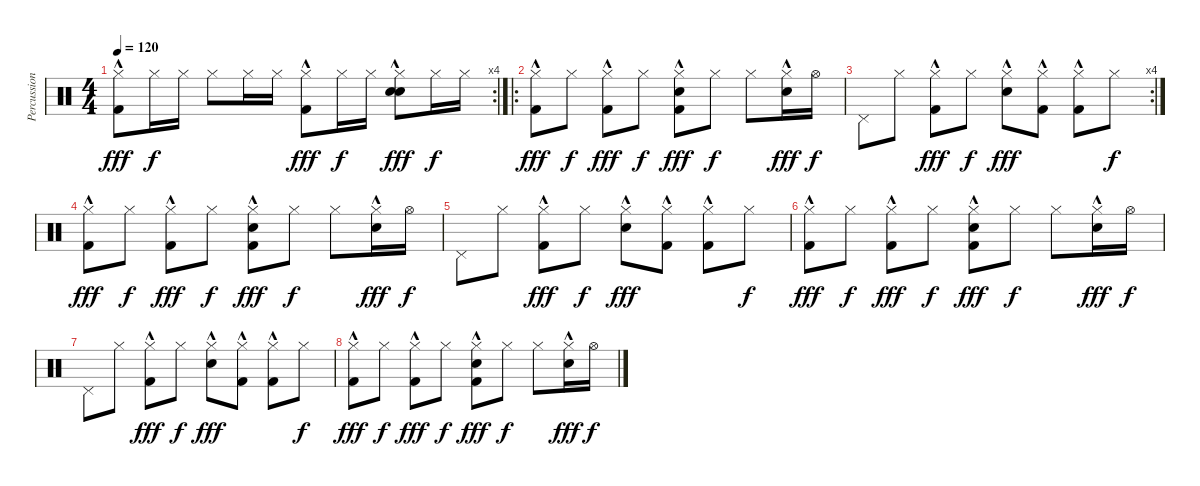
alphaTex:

\track ("Percussion" "Percussion") {instrument percussion}
\staff {score}
\articulation defaults
\rc 4
\ts (4 4)
\tempo 120
\clef neutral
\ks c
("Hi-Hat (closed)" "Kick (hit) 2"{hac}).8{dy fff} "Hi-Hat (closed)".16{dy f} "Hi-Hat (closed)".16 "Hi-Hat (closed)".8 "Hi-Hat (closed)".16 "Hi-Hat (closed)".16 ("Hi-Hat (closed)" "Kick (hit) 2"{hac}).8{dy fff} "Hi-Hat (closed)".16{dy f} "Hi-Hat (closed)".16 ("Hi-Hat (closed)" "Hand Clap (hit)"{hac} "Snare (hit) 2").8{dy fff} "Hi-Hat (closed)".16{dy f} "Hi-Hat (closed)".16 |
\ro
("Hi-Hat (closed)" "Kick (hit) 2"{hac}).8{dy fff} "Hi-Hat (closed)".8{dy f} ("Hi-Hat (closed)" "Kick (hit) 2"{hac}).8{dy fff} "Hi-Hat (closed)".8{dy f} ("Hi-Hat (closed)" "Snare (hit) 2"{hac} "Kick (hit) 2"{hac}).8{dy fff} "Hi-Hat (closed)".8{dy f} "Hi-Hat (closed)".8 ("Hi-Hat (closed)" "Snare (hit) 2"{hac}).16{dy fff} "Hi-Hat (open)".16{dy f} |
\rc 4 "Pedal Hi-Hat (hit)".8 "Hi-Hat (closed)".8
("Hi-Hat (closed)" "Kick (hit) 2"{hac}).8{dy fff} "Hi-Hat (closed)".8{dy f} ("Hi-Hat (closed)" "Snare (hit) 2"{hac}).8{dy fff} ("Hi-Hat (closed)" "Kick (hit) 2"{hac}).8 ("Hi-Hat (closed)" "Kick (hit) 2"{hac}).8 "Hi-Hat (closed)".8{dy f} |
("Hi-Hat (closed)" "Kick (hit) 2"{hac}).8{dy fff volume 6} "Hi-Hat (closed)".8{dy f} ("Hi-Hat (closed)" "Kick (hit) 2"{hac}).8{dy fff} "Hi-Hat (closed)".8{dy f} ("Hi-Hat (closed)" "Snare (hit) 2"{hac} "Kick (hit) 2"{hac}).8{dy fff} "Hi-Hat (closed)".8{dy f} "Hi-Hat (closed)".8 ("Hi-Hat (closed)" "Snare (hit) 2"{hac}).16{dy fff} "Hi-Hat (open)".16{dy f} |
"Pedal Hi-Hat (hit)".8 "Hi-Hat (closed)".8 ("Hi-Hat (closed)" "Kick (hit) 2"{hac}).8{dy fff} "Hi-Hat (closed)".8{dy f} ("Hi-Hat (closed)" "Snare (hit) 2"{hac}).8{dy fff} ("Hi-Hat (closed)" "Kick (hit) 2"{hac}).8 ("Hi-Hat (closed)" "Kick (hit) 2"{hac}).8 "Hi-Hat (closed)".8{dy f} |
("Hi-Hat (closed)" "Kick (hit) 2"{hac}).8{dy fff} "Hi-Hat (closed)".8{dy f} ("Hi-Hat (closed)" "Kick (hit) 2"{hac}).8{dy fff} "Hi-Hat (closed)".8{dy f} ("Hi-Hat (closed)" "Snare (hit) 2"{hac} "Kick (hit) 2"{hac}).8{dy fff} "Hi-Hat (closed)".8{dy f} "Hi-Hat (closed)".8 ("Hi-Hat (closed)" "Snare (hit) 2"{hac}).16{dy fff} "Hi-Hat (open)".16{dy f} |
"Pedal Hi-Hat (hit)".8 "Hi-Hat (closed)".8 ("Hi-Hat (closed)" "Kick (hit) 2"{hac}).8{dy fff} "Hi-Hat (closed)".8{dy f} ("Hi-Hat (closed)" "Snare (hit) 2"{hac}).8{dy fff} ("Hi-Hat (closed)" "Kick (hit) 2"{hac}).8 ("Hi-Hat (closed)" "Kick (hit) 2"{hac}).8 "Hi-Hat (closed)".8{dy f} |
("Hi-Hat (closed)" "Kick (hit) 2"{hac}).8{dy fff volume 0} "Hi-Hat (closed)".8{dy f} ("Hi-Hat (closed)" "Kick (hit) 2"{hac}).8{dy fff} "Hi-Hat (closed)".8{dy f} ("Hi-Hat (closed)" "Snare (hit) 2"{hac} "Kick (hit) 2"{hac}).8{dy fff} "Hi-Hat (closed)".8{dy f} "Hi-Hat (closed)".8 ("Hi-Hat (closed)" "Snare (hit) 2"{hac}).16{dy fff} "Hi-Hat (open)".16{dy f}
